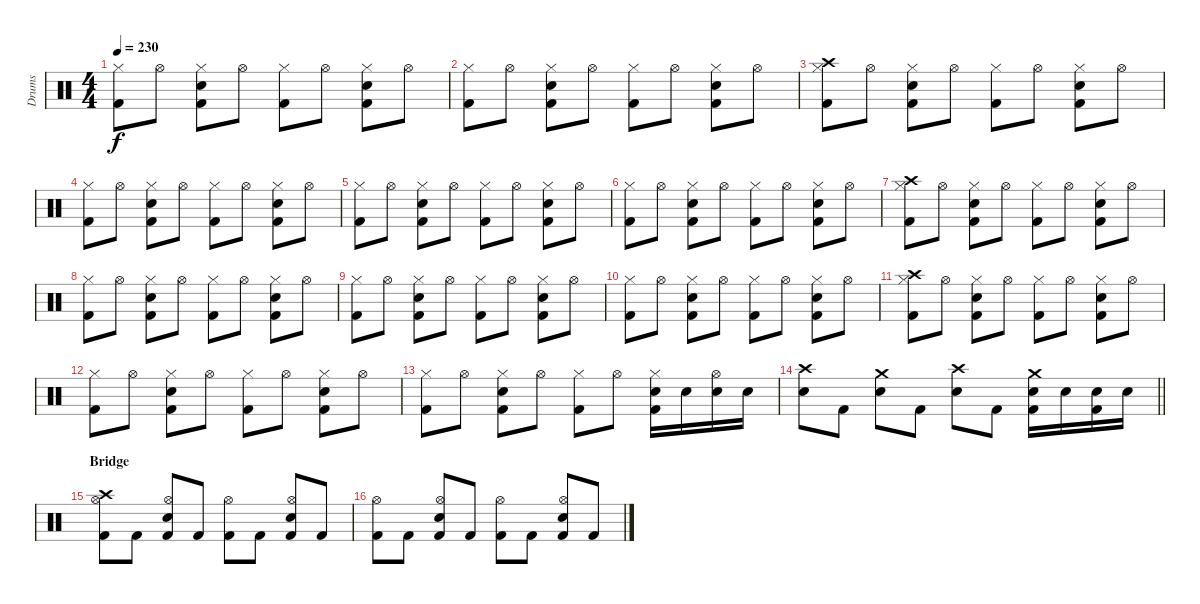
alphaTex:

\track ("Drums" "Drums") {instrument percussion}
\staff {score}
\articulation defaults
\ts (4 4)
\tempo 230
\clef neutral
\ks c
("Hi-Hat (closed)" "Kick (hit) 2").8{dy f} "Hi-Hat (open)".8 ("Hi-Hat (closed)" "Snare (hit) 2" "Kick (hit) 2").8 "Hi-Hat (open)".8 ("Hi-Hat (closed)" "Kick (hit) 2").8 "Hi-Hat (open)".8 ("Hi-Hat (closed)" "Snare (hit) 2" "Kick (hit) 2").8 "Hi-Hat (open)".8 |
("Hi-Hat (closed)" "Kick (hit) 2").8 "Hi-Hat (open)".8 ("Hi-Hat (closed)" "Snare (hit) 2" "Kick (hit) 2").8 "Hi-Hat (open)".8 ("Hi-Hat (closed)" "Kick (hit) 2").8 "Hi-Hat (open)".8 ("Hi-Hat (closed)" "Snare (hit) 2" "Kick (hit) 2").8 "Hi-Hat (open)".8 |
("Crash high (hit)" "Hi-Hat (closed)" "Kick (hit) 2").8 "Hi-Hat (open)".8 ("Hi-Hat (closed)" "Snare (hit) 2" "Kick (hit) 2").8 "Hi-Hat (open)".8 ("Hi-Hat (closed)" "Kick (hit) 2").8 "Hi-Hat (open)".8 ("Hi-Hat (closed)" "Snare (hit) 2" "Kick (hit) 2").8 "Hi-Hat (open)".8 |
("Hi-Hat (closed)" "Kick (hit) 2").8 "Hi-Hat (open)".8 ("Hi-Hat (closed)" "Snare (hit) 2" "Kick (hit) 2").8 "Hi-Hat (open)".8 ("Hi-Hat (closed)" "Kick (hit) 2").8 "Hi-Hat (open)".8 ("Hi-Hat (closed)" "Snare (hit) 2" "Kick (hit) 2").8 "Hi-Hat (open)".8 |
("Hi-Hat (closed)" "Kick (hit) 2").8 "Hi-Hat (open)".8 ("Hi-Hat (closed)" "Snare (hit) 2" "Kick (hit) 2").8 "Hi-Hat (open)".8 ("Hi-Hat (closed)" "Kick (hit) 2").8 "Hi-Hat (open)".8 ("Hi-Hat (closed)" "Snare (hit) 2" "Kick (hit) 2").8 "Hi-Hat (open)".8 |
("Hi-Hat (closed)" "Kick (hit) 2").8 "Hi-Hat (open)".8 ("Hi-Hat (closed)" "Snare (hit) 2" "Kick (hit) 2").8 "Hi-Hat (open)".8 ("Hi-Hat (closed)" "Kick (hit) 2").8 "Hi-Hat (open)".8 ("Hi-Hat (closed)" "Snare (hit) 2" "Kick (hit) 2").8 "Hi-Hat (open)".8 |
("Crash high (hit)" "Hi-Hat (closed)" "Kick (hit) 2").8 "Hi-Hat (open)".8 ("Hi-Hat (closed)" "Snare (hit) 2" "Kick (hit) 2").8 "Hi-Hat (open)".8 ("Hi-Hat (closed)" "Kick (hit) 2").8 "Hi-Hat (open)".8 ("Hi-Hat (closed)" "Snare (hit) 2" "Kick (hit) 2").8 "Hi-Hat (open)".8 |
("Hi-Hat (closed)" "Kick (hit) 2").8 "Hi-Hat (open)".8 ("Hi-Hat (closed)" "Snare (hit) 2" "Kick (hit) 2").8 "Hi-Hat (open)".8 ("Hi-Hat (closed)" "Kick (hit) 2").8 "Hi-Hat (open)".8 ("Hi-Hat (closed)" "Snare (hit) 2" "Kick (hit) 2").8 "Hi-Hat (open)".8 |
("Hi-Hat (closed)" "Kick (hit) 2").8 "Hi-Hat (open)".8 ("Hi-Hat (closed)" "Snare (hit) 2" "Kick (hit) 2").8 "Hi-Hat (open)".8 ("Hi-Hat (closed)" "Kick (hit) 2").8 "Hi-Hat (open)".8 ("Hi-Hat (closed)" "Snare (hit) 2" "Kick (hit) 2").8 "Hi-Hat (open)".8 |
("Hi-Hat (closed)" "Kick (hit) 2").8 "Hi-Hat (open)".8 ("Hi-Hat (closed)" "Snare (hit) 2" "Kick (hit) 2").8 "Hi-Hat (open)".8 ("Hi-Hat (closed)" "Kick (hit) 2").8 "Hi-Hat (open)".8 ("Hi-Hat (closed)" "Snare (hit) 2" "Kick (hit) 2").8 "Hi-Hat (open)".8 |
("Crash high (hit)" "Hi-Hat (closed)" "Kick (hit) 2").8 "Hi-Hat (open)".8 ("Hi-Hat (closed)" "Snare (hit) 2" "Kick (hit) 2").8 "Hi-Hat (open)".8 ("Hi-Hat (closed)" "Kick (hit) 2").8 "Hi-Hat (open)".8 ("Hi-Hat (closed)" "Snare (hit) 2" "Kick (hit) 2").8 "Hi-Hat (open)".8 |
("Hi-Hat (closed)" "Kick (hit) 2").8 "Hi-Hat (open)".8 ("Hi-Hat (closed)" "Snare (hit) 2" "Kick (hit) 2").8 "Hi-Hat (open)".8 ("Hi-Hat (closed)" "Kick (hit) 2").8 "Hi-Hat (open)".8 ("Hi-Hat (closed)" "Snare (hit) 2" "Kick (hit) 2").8 "Hi-Hat (open)".8 |
("Hi-Hat (closed)" "Kick (hit) 2").8 "Hi-Hat (open)".8 ("Hi-Hat (closed)" "Snare (hit) 2" "Kick (hit) 2").8 "Hi-Hat (open)".8 ("Hi-Hat (closed)" "Kick (hit) 2").8 "Hi-Hat (open)".8 ("Hi-Hat (closed)" "Snare (hit) 2" "Kick (hit) 2").16 "Snare (hit) 2".16 ("Hi-Hat (open)" "Snare (hit) 2").16 "Snare (hit) 2".16 |
\barLineRight lightlight
("Crash high (hit)" "Snare (hit) 2").8 "Kick (hit) 2".8 ("Crash medium (hit)" "Snare (hit) 2").8 "Kick (hit) 2".8 ("Crash high (hit)" "Snare (hit) 2").8 "Kick (hit) 2".8 ("Crash medium (hit)" "Snare (hit) 2" "Kick (hit) 2").16 "Snare (hit) 2".16 ("Snare (hit) 2" "Kick (hit) 2").16 "Snare (hit) 2".16 |
\section ("" "Bridge")
("Crash high (hit)" "Hi-Hat (open)" "Kick (hit) 2").8 "Kick (hit) 2".8 ("Hi-Hat (open)" "Snare (hit) 2" "Kick (hit) 2").8 "Kick (hit) 2".8 ("Hi-Hat (open)" "Kick (hit) 2").8 "Kick (hit) 2".8 ("Hi-Hat (open)" "Snare (hit) 2" "Kick (hit) 2").8 "Kick (hit) 2".8 |
("Hi-Hat (open)" "Kick (hit) 2").8 "Kick (hit) 2".8 ("Hi-Hat (open)" "Snare (hit) 2" "Kick (hit) 2").8 "Kick (hit) 2".8 ("Hi-Hat (open)" "Kick (hit) 2").8 "Kick (hit) 2".8 ("Hi-Hat (open)" "Snare (hit) 2" "Kick (hit) 2").8 "Kick (hit) 2".8
